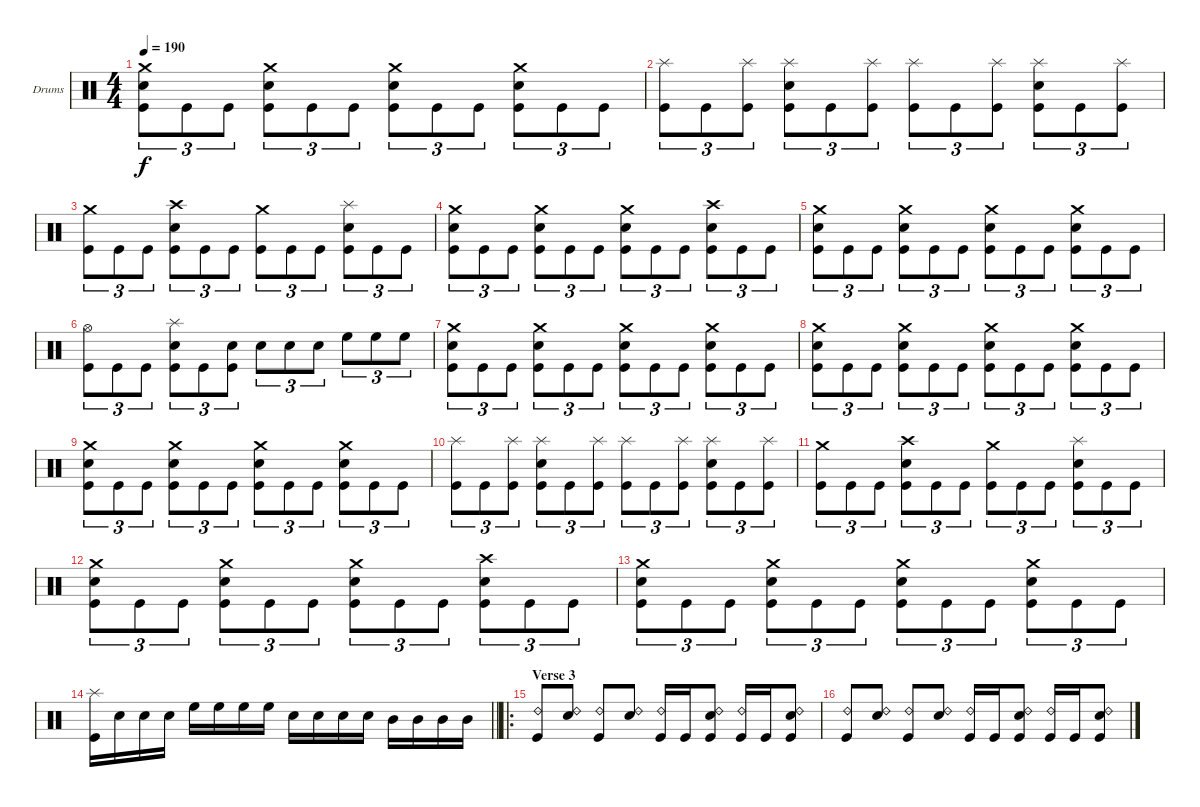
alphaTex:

\bracketExtendMode groupsimilarinstruments
\firstSystemTrackNameOrientation horizontal
\otherSystemsTrackNameOrientation horizontal
\track ("Drumkit" "Drums") {instrument percussion}
\staff {score}
\articulation defaults
\ts (4 4)
\tempo 190
\clef neutral
\ks c
("Kick (hit)" "Snare (hit) 2" "Crash medium (hit)").8{tu (3 2) dy f} "Kick (hit)".8{tu (3 2)} "Kick (hit)".8{tu (3 2)} ("Kick (hit)" "Snare (hit) 2" "Crash medium (hit)").8{tu (3 2)} "Kick (hit)".8{tu (3 2)} "Kick (hit)".8{tu (3 2)} ("Kick (hit)" "Snare (hit) 2" "Crash medium (hit)").8{tu (3 2)} "Kick (hit)".8{tu (3 2)} "Kick (hit)".8{tu (3 2)} ("Kick (hit)" "Snare (hit) 2" "Crash medium (hit)").8{tu (3 2)} "Kick (hit)".8{tu (3 2)} "Kick (hit)".8{tu (3 2)} |
("Kick (hit)" "Splash (hit)").8{tu (3 2)} "Kick (hit)".8{tu (3 2)} ("Kick (hit)" "Splash (hit)").8{tu (3 2)} ("Kick (hit)" "Snare (hit) 2" "Splash (hit)").8{tu (3 2)} "Kick (hit)".8{tu (3 2)} ("Kick (hit)" "Splash (hit)").8{tu (3 2)} ("Kick (hit)" "Splash (hit)").8{tu (3 2)} "Kick (hit)".8{tu (3 2)} ("Kick (hit)" "Splash (hit)").8{tu (3 2)} ("Kick (hit)" "Snare (hit) 2" "Splash (hit)").8{tu (3 2)} "Kick (hit)".8{tu (3 2)} ("Kick (hit)" "Splash (hit)").8{tu (3 2)} |
("Kick (hit)" "Crash medium (hit)").8{tu (3 2)} "Kick (hit)".8{tu (3 2)} "Kick (hit)".8{tu (3 2)} ("Kick (hit)" "Snare (hit) 2" "Crash high (hit)").8{tu (3 2)} "Kick (hit)".8{tu (3 2)} "Kick (hit)".8{tu (3 2)} ("Kick (hit)" "Crash medium (hit)").8{tu (3 2)} "Kick (hit)".8{tu (3 2)} "Kick (hit)".8{tu (3 2)} ("Kick (hit)" "Snare (hit) 2" "Splash (hit)").8{tu (3 2)} "Kick (hit)".8{tu (3 2)} "Kick (hit)".8{tu (3 2)} |
("Kick (hit)" "Snare (hit) 2" "Crash medium (hit)").8{tu (3 2)} "Kick (hit)".8{tu (3 2)} "Kick (hit)".8{tu (3 2)} ("Kick (hit)" "Snare (hit) 2" "Crash medium (hit)").8{tu (3 2)} "Kick (hit)".8{tu (3 2)} "Kick (hit)".8{tu (3 2)} ("Kick (hit)" "Snare (hit) 2" "Crash medium (hit)").8{tu (3 2)} "Kick (hit)".8{tu (3 2)} "Kick (hit)".8{tu (3 2)} ("Kick (hit)" "Snare (hit) 2" "Crash high (hit)").8{tu (3 2)} "Kick (hit)".8{tu (3 2)} "Kick (hit)".8{tu (3 2)} |
("Kick (hit)" "Snare (hit) 2" "Crash medium (hit)").8{tu (3 2)} "Kick (hit)".8{tu (3 2)} "Kick (hit)".8{tu (3 2)} ("Kick (hit)" "Snare (hit) 2" "Crash medium (hit)").8{tu (3 2)} "Kick (hit)".8{tu (3 2)} "Kick (hit)".8{tu (3 2)} ("Kick (hit)" "Snare (hit) 2" "Crash medium (hit)").8{tu (3 2)} "Kick (hit)".8{tu (3 2)} "Kick (hit)".8{tu (3 2)} ("Kick (hit)" "Snare (hit) 2" "Crash medium (hit)").8{tu (3 2)} "Kick (hit)".8{tu (3 2)} "Kick (hit)".8{tu (3 2)} |
("Kick (hit)" "Hi-Hat (open)").8{tu (3 2)} "Kick (hit)".8{tu (3 2)} "Kick (hit)".8{tu (3 2)} ("Kick (hit)" "Snare (hit) 2" "Splash (hit)").8{tu (3 2)} "Kick (hit)".8{tu (3 2)} ("Kick (hit)" "Snare (hit) 2").8{tu (3 2)} "Snare (hit) 2".8{tu (3 2)} "Snare (hit) 2".8{tu (3 2)} "Snare (hit) 2".8{tu (3 2)} "High Floor Tom (hit)".8{tu (3 2)} "High Floor Tom (hit)".8{tu (3 2)} "High Floor Tom (hit)".8{tu (3 2)} |
("Kick (hit)" "Snare (hit) 2" "Crash medium (hit)").8{tu (3 2)} "Kick (hit)".8{tu (3 2)} "Kick (hit)".8{tu (3 2)} ("Kick (hit)" "Snare (hit) 2" "Crash medium (hit)").8{tu (3 2)} "Kick (hit)".8{tu (3 2)} "Kick (hit)".8{tu (3 2)} ("Kick (hit)" "Snare (hit) 2" "Crash medium (hit)").8{tu (3 2)} "Kick (hit)".8{tu (3 2)} "Kick (hit)".8{tu (3 2)} ("Kick (hit)" "Snare (hit) 2" "Crash medium (hit)").8{tu (3 2)} "Kick (hit)".8{tu (3 2)} "Kick (hit)".8{tu (3 2)} |
("Kick (hit)" "Snare (hit) 2" "Crash medium (hit)").8{tu (3 2)} "Kick (hit)".8{tu (3 2)} "Kick (hit)".8{tu (3 2)} ("Kick (hit)" "Snare (hit) 2" "Crash medium (hit)").8{tu (3 2)} "Kick (hit)".8{tu (3 2)} "Kick (hit)".8{tu (3 2)} ("Kick (hit)" "Snare (hit) 2" "Crash medium (hit)").8{tu (3 2)} "Kick (hit)".8{tu (3 2)} "Kick (hit)".8{tu (3 2)} ("Kick (hit)" "Snare (hit) 2" "Crash medium (hit)").8{tu (3 2)} "Kick (hit)".8{tu (3 2)} "Kick (hit)".8{tu (3 2)} |
("Kick (hit)" "Snare (hit) 2" "Crash medium (hit)").8{tu (3 2)} "Kick (hit)".8{tu (3 2)} "Kick (hit)".8{tu (3 2)} ("Kick (hit)" "Snare (hit) 2" "Crash medium (hit)").8{tu (3 2)} "Kick (hit)".8{tu (3 2)} "Kick (hit)".8{tu (3 2)} ("Kick (hit)" "Snare (hit) 2" "Crash medium (hit)").8{tu (3 2)} "Kick (hit)".8{tu (3 2)} "Kick (hit)".8{tu (3 2)} ("Kick (hit)" "Snare (hit) 2" "Crash medium (hit)").8{tu (3 2)} "Kick (hit)".8{tu (3 2)} "Kick (hit)".8{tu (3 2)} |
("Kick (hit)" "Splash (hit)").8{tu (3 2)} "Kick (hit)".8{tu (3 2)} ("Kick (hit)" "Splash (hit)").8{tu (3 2)} ("Kick (hit)" "Snare (hit) 2" "Splash (hit)").8{tu (3 2)} "Kick (hit)".8{tu (3 2)} ("Kick (hit)" "Splash (hit)").8{tu (3 2)} ("Kick (hit)" "Splash (hit)").8{tu (3 2)} "Kick (hit)".8{tu (3 2)} ("Kick (hit)" "Splash (hit)").8{tu (3 2)} ("Kick (hit)" "Snare (hit) 2" "Splash (hit)").8{tu (3 2)} "Kick (hit)".8{tu (3 2)} ("Kick (hit)" "Splash (hit)").8{tu (3 2)} |
("Kick (hit)" "Crash medium (hit)").8{tu (3 2)} "Kick (hit)".8{tu (3 2)} "Kick (hit)".8{tu (3 2)} ("Kick (hit)" "Snare (hit) 2" "Crash high (hit)").8{tu (3 2)} "Kick (hit)".8{tu (3 2)} "Kick (hit)".8{tu (3 2)} ("Kick (hit)" "Crash medium (hit)").8{tu (3 2)} "Kick (hit)".8{tu (3 2)} "Kick (hit)".8{tu (3 2)} ("Kick (hit)" "Snare (hit) 2" "Splash (hit)").8{tu (3 2)} "Kick (hit)".8{tu (3 2)} "Kick (hit)".8{tu (3 2)} |
("Kick (hit)" "Snare (hit) 2" "Crash medium (hit)").8{tu (3 2)} "Kick (hit)".8{tu (3 2)} "Kick (hit)".8{tu (3 2)} ("Kick (hit)" "Snare (hit) 2" "Crash medium (hit)").8{tu (3 2)} "Kick (hit)".8{tu (3 2)} "Kick (hit)".8{tu (3 2)} ("Kick (hit)" "Snare (hit) 2" "Crash medium (hit)").8{tu (3 2)} "Kick (hit)".8{tu (3 2)} "Kick (hit)".8{tu (3 2)} ("Kick (hit)" "Snare (hit) 2" "Crash high (hit)").8{tu (3 2)} "Kick (hit)".8{tu (3 2)} "Kick (hit)".8{tu (3 2)} |
("Kick (hit)" "Snare (hit) 2" "Crash medium (hit)").8{tu (3 2)} "Kick (hit)".8{tu (3 2)} "Kick (hit)".8{tu (3 2)} ("Kick (hit)" "Snare (hit) 2" "Crash medium (hit)").8{tu (3 2)} "Kick (hit)".8{tu (3 2)} "Kick (hit)".8{tu (3 2)} ("Kick (hit)" "Snare (hit) 2" "Crash medium (hit)").8{tu (3 2)} "Kick (hit)".8{tu (3 2)} "Kick (hit)".8{tu (3 2)} ("Kick (hit)" "Snare (hit) 2" "Crash medium (hit)").8{tu (3 2)} "Kick (hit)".8{tu (3 2)} "Kick (hit)".8{tu (3 2)} |
\barLineRight lightlight
("Kick (hit)" "Splash (hit)").16 "Snare (hit) 2".16 "Snare (hit) 2".16 "Snare (hit) 2".16 "High Floor Tom (hit)".16 "High Floor Tom (hit)".16 "High Floor Tom (hit)".16 "High Floor Tom (hit)".16 "Snare (hit) 2".16 "Snare (hit) 2".16 "Snare (hit) 2".16 "Snare (hit) 2".16 "Mid Tom (hit)".16 "Mid Tom (hit)".16 "Mid Tom (hit)".16 "Mid Tom (hit)".16 |
\ro
\section ("" "Verse 3")
("Kick (hit)" "Ride (bell) 2").8 ("Snare (hit) 2" "Ride (bell) 2").8 ("Kick (hit)" "Ride (bell) 2").8 ("Snare (hit) 2" "Ride (bell) 2").8 ("Kick (hit)" "Ride (bell) 2").16 "Kick (hit)".16 ("Kick (hit)" "Snare (hit) 2" "Ride (bell) 2").8 ("Kick (hit)" "Ride (bell) 2").16 "Kick (hit)".16 ("Kick (hit)" "Snare (hit) 2" "Ride (bell) 2").8 |
("Kick (hit)" "Ride (bell) 2").8 ("Snare (hit) 2" "Ride (bell) 2").8 ("Kick (hit)" "Ride (bell) 2").8 ("Snare (hit) 2" "Ride (bell) 2").8 ("Kick (hit)" "Ride (bell) 2").16 "Kick (hit)".16 ("Kick (hit)" "Snare (hit) 2" "Ride (bell) 2").8 ("Kick (hit)" "Ride (bell) 2").16 "Kick (hit)".16 ("Kick (hit)" "Snare (hit) 2" "Ride (bell) 2").8
